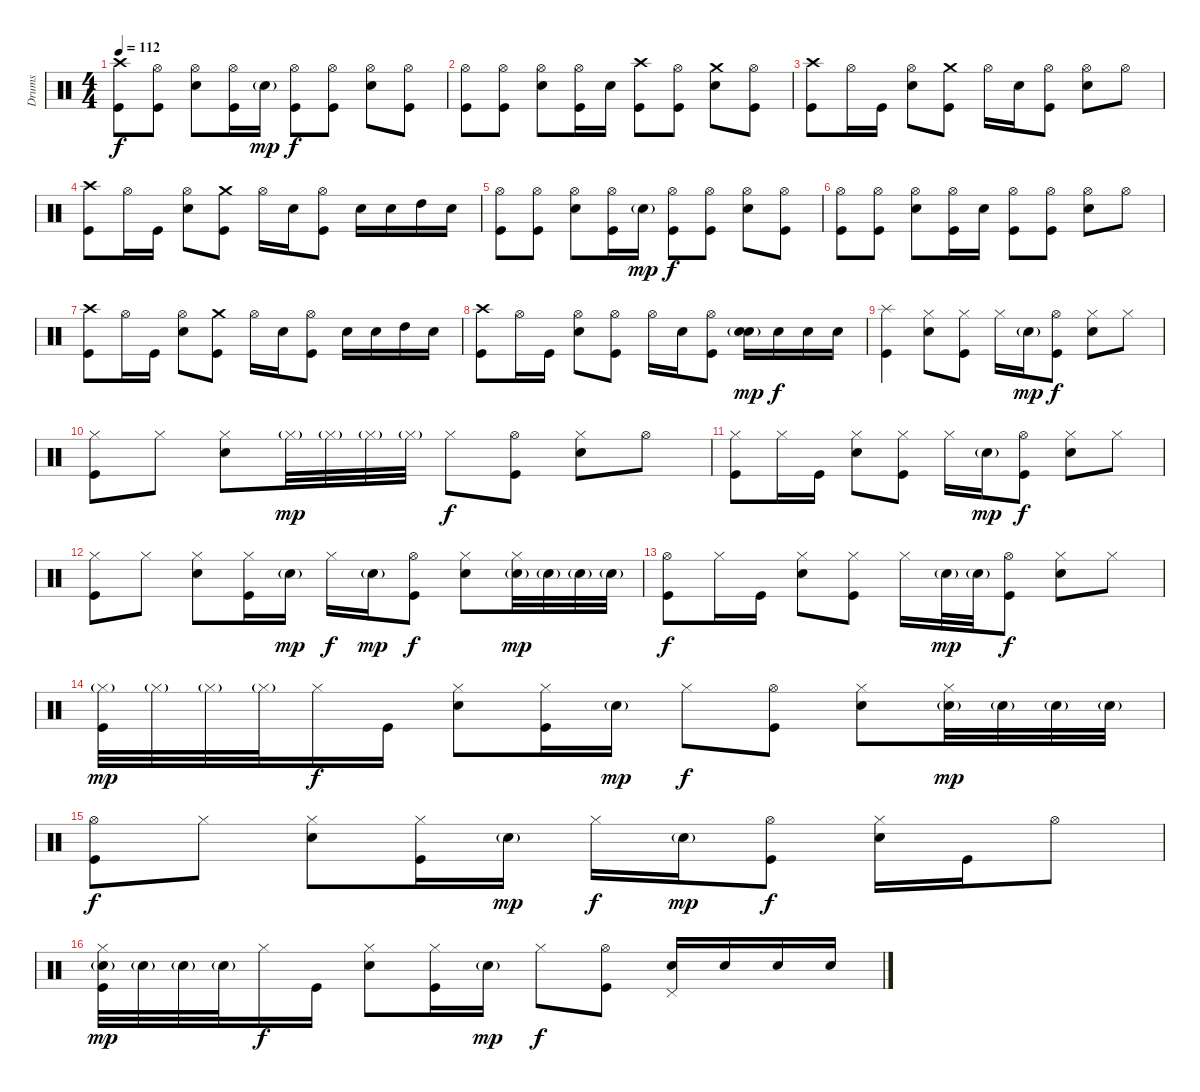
\track ("Drums" "Drums") {instrument percussion}
\staff {score}
\articulation defaults
\ts (4 4)
\tempo 112
\clef neutral
\ks c
("Crash high (hit)" "Kick (hit)").8{dy f} ("Hi-Hat (open)" "Kick (hit)").8 ("Hi-Hat (open)" "Electric Snare (hit)").8 ("Hi-Hat (open)" "Kick (hit)").16 "Electric Snare (hit)"{g}.16{dy mp} ("Hi-Hat (open)" "Kick (hit)").8{dy f} ("Hi-Hat (open)" "Kick (hit)").8 ("Hi-Hat (open)" "Electric Snare (hit)").8 ("Hi-Hat (open)" "Kick (hit)").8 |
("Hi-Hat (open)" "Kick (hit)").8 ("Hi-Hat (open)" "Kick (hit)").8 ("Hi-Hat (open)" "Electric Snare (hit)").8 ("Hi-Hat (open)" "Kick (hit)").16 "Electric Snare (hit)".16 ("Crash high (hit)" "Kick (hit)").8 ("Hi-Hat (open)" "Kick (hit)").8 ("Crash medium (hit)" "Electric Snare (hit)").8 ("Hi-Hat (open)" "Kick (hit)").8 |
("Crash high (hit)" "Kick (hit)").8 "Hi-Hat (open)".16 "Kick (hit)".16 ("Hi-Hat (open)" "Electric Snare (hit)").8 ("Crash medium (hit)" "Kick (hit)").8 "Hi-Hat (open)".16 "Electric Snare (hit)".16 ("Hi-Hat (open)" "Kick (hit)").8 ("Hi-Hat (open)" "Electric Snare (hit)").8 "Hi-Hat (open)".8 |
("Crash high (hit)" "Kick (hit)").8 "Hi-Hat (open)".16 "Kick (hit)".16 ("Hi-Hat (open)" "Electric Snare (hit)").8 ("Crash medium (hit)" "Kick (hit)").8 "Hi-Hat (open)".16 "Electric Snare (hit)".16 ("Hi-Hat (open)" "Kick (hit)").8 "Electric Snare (hit)".16 "Electric Snare (hit)".16 "High Tom (hit)".16 "Electric Snare (hit)".16 |
("Hi-Hat (open)" "Kick (hit)").8 ("Hi-Hat (open)" "Kick (hit)").8 ("Hi-Hat (open)" "Electric Snare (hit)").8 ("Hi-Hat (open)" "Kick (hit)").16 "Electric Snare (hit)"{g}.16{dy mp} ("Hi-Hat (open)" "Kick (hit)").8{dy f} ("Hi-Hat (open)" "Kick (hit)").8 ("Hi-Hat (open)" "Electric Snare (hit)").8 ("Hi-Hat (open)" "Kick (hit)").8 |
("Hi-Hat (open)" "Kick (hit)").8 ("Hi-Hat (open)" "Kick (hit)").8 ("Hi-Hat (open)" "Electric Snare (hit)").8 ("Hi-Hat (open)" "Kick (hit)").16 "Electric Snare (hit)".16 ("Hi-Hat (open)" "Kick (hit)").8 ("Hi-Hat (open)" "Kick (hit)").8 ("Hi-Hat (open)" "Electric Snare (hit)").8 "Hi-Hat (open)".8 |
("Crash high (hit)" "Kick (hit)").8 "Hi-Hat (open)".16 "Kick (hit)".16 ("Hi-Hat (open)" "Electric Snare (hit)").8 ("Crash medium (hit)" "Kick (hit)").8 "Hi-Hat (open)".16 "Electric Snare (hit)".16 ("Hi-Hat (open)" "Kick (hit)").8 "Electric Snare (hit)".16 "Electric Snare (hit)".16 "High Tom (hit)".16 "Electric Snare (hit)".16 |
("Crash high (hit)" "Kick (hit)").8 "Hi-Hat (open)".16 "Kick (hit)".16 ("Hi-Hat (open)" "Electric Snare (hit)").8 ("Hi-Hat (open)" "Kick (hit)").8 "Hi-Hat (open)".16 "Electric Snare (hit)".16 ("Hi-Hat (open)" "Kick (hit)").8 ("Electric Snare (hit)"{g} "Electric Snare (hit)").16{bd 60 dy mp} "Electric Snare (hit)".16{dy f} "Electric Snare (hit)".16 "Electric Snare (hit)".16 |
("Splash (hit)" "Kick (hit)").4 ("Hi-Hat (closed)" "Electric Snare (hit)").8 ("Hi-Hat (closed)" "Kick (hit)").8 "Hi-Hat (closed)".16 "Electric Snare (hit)"{g}.16{dy mp} ("Hi-Hat (open)" "Kick (hit)").8{dy f} ("Hi-Hat (closed)" "Electric Snare (hit)").8 "Hi-Hat (closed)".8 |
("Hi-Hat (closed)" "Kick (hit)").8 "Hi-Hat (closed)".8 ("Hi-Hat (closed)" "Electric Snare (hit)").8 "Hi-Hat (closed)"{g}.32{dy mp} "Hi-Hat (closed)"{g}.32 "Hi-Hat (closed)"{g}.32 "Hi-Hat (closed)"{g}.32 "Hi-Hat (closed)".8{dy f} ("Hi-Hat (open)" "Kick (hit)").8 ("Hi-Hat (closed)" "Electric Snare (hit)").8 "Hi-Hat (open)".8 |
("Hi-Hat (closed)" "Kick (hit)").8 "Hi-Hat (closed)".16 "Kick (hit)".16 ("Hi-Hat (closed)" "Electric Snare (hit)").8 ("Hi-Hat (closed)" "Kick (hit)").8 "Hi-Hat (closed)".16 "Electric Snare (hit)"{g}.16{dy mp} ("Hi-Hat (open)" "Kick (hit)").8{dy f} ("Hi-Hat (closed)" "Electric Snare (hit)").8 "Hi-Hat (closed)".8 |
("Hi-Hat (closed)" "Kick (hit)").8 "Hi-Hat (closed)".8 ("Hi-Hat (closed)" "Electric Snare (hit)").8 ("Hi-Hat (closed)" "Kick (hit)").16 "Electric Snare (hit)"{g}.16{dy mp} "Hi-Hat (closed)".16{dy f} "Electric Snare (hit)"{g}.16{dy mp} ("Hi-Hat (open)" "Kick (hit)").8{dy f} ("Hi-Hat (closed)" "Electric Snare (hit)").8 ("Hi-Hat (closed)" "Electric Snare (hit)"{g}).32{dy mp} "Electric Snare (hit)"{g}.32 "Electric Snare (hit)"{g}.32 "Electric Snare (hit)"{g}.32 |
("Hi-Hat (open)" "Kick (hit)").8{dy f} "Hi-Hat (closed)".16 "Kick (hit)".16 ("Hi-Hat (closed)" "Electric Snare (hit)").8 ("Hi-Hat (closed)" "Kick (hit)").8 "Hi-Hat (closed)".16 "Electric Snare (hit)"{g}.32{dy mp} "Electric Snare (hit)"{g}.32 ("Hi-Hat (open)" "Kick (hit)").8{dy f} ("Hi-Hat (closed)" "Electric Snare (hit)").8 "Hi-Hat (closed)".8 |
("Hi-Hat (closed)"{g} "Kick (hit)").32{dy mp} "Hi-Hat (closed)"{g}.32 "Hi-Hat (closed)"{g}.32 "Hi-Hat (closed)"{g}.32 "Hi-Hat (closed)".16{dy f} "Kick (hit)".16 ("Hi-Hat (closed)" "Electric Snare (hit)").8 ("Hi-Hat (closed)" "Kick (hit)").16 "Electric Snare (hit)"{g}.16{dy mp} "Hi-Hat (closed)".8{dy f} ("Hi-Hat (open)" "Kick (hit)").8 ("Hi-Hat (closed)" "Electric Snare (hit)").8 ("Hi-Hat (closed)" "Electric Snare (hit)"{g}).32{dy mp} "Electric Snare (hit)"{g}.32 "Electric Snare (hit)"{g}.32 "Electric Snare (hit)"{g}.32 |
("Hi-Hat (open)" "Kick (hit)").8{dy f} "Hi-Hat (closed)".8 ("Hi-Hat (closed)" "Electric Snare (hit)").8 ("Hi-Hat (closed)" "Kick (hit)").16 "Electric Snare (hit)"{g}.16{dy mp} "Hi-Hat (closed)".16{dy f} "Electric Snare (hit)"{g}.16{dy mp} ("Hi-Hat (open)" "Kick (hit)").8{dy f} ("Hi-Hat (closed)" "Electric Snare (hit)").16 "Kick (hit)".16 "Hi-Hat (open)".8 |
("Hi-Hat (closed)" "Electric Snare (hit)"{g} "Kick (hit)").32{dy mp} "Electric Snare (hit)"{g}.32 "Electric Snare (hit)"{g}.32 "Electric Snare (hit)"{g}.32 "Hi-Hat (closed)".16{dy f} "Kick (hit)".16 ("Hi-Hat (closed)" "Electric Snare (hit)").8 ("Hi-Hat (closed)" "Kick (hit)").16 "Electric Snare (hit)"{g}.16{dy mp} "Hi-Hat (closed)".8{dy f} ("Hi-Hat (open)" "Kick (hit)").8 ("Pedal Hi-Hat (hit)" "Electric Snare (hit)").16 "Electric Snare (hit)".16 "Electric Snare (hit)".16 "Electric Snare (hit)".16
